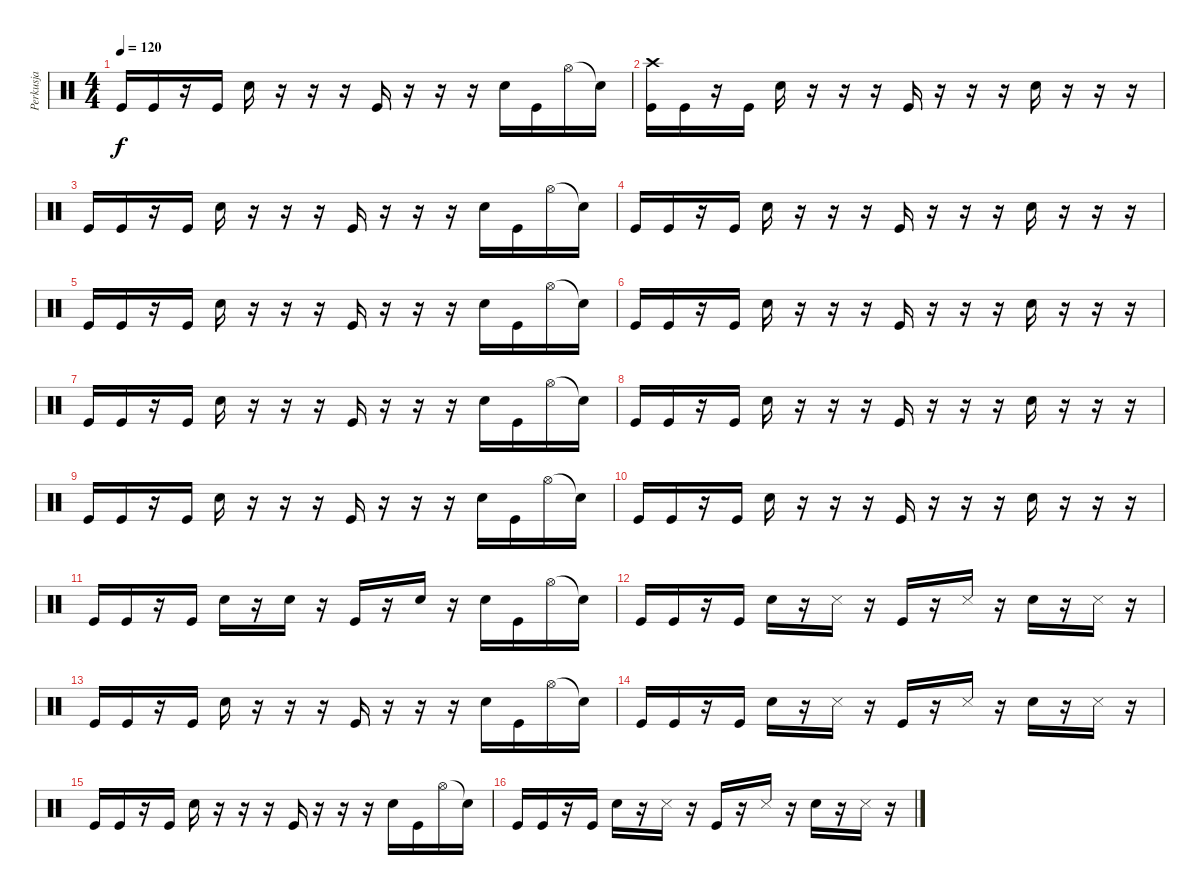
\track ("Perkusja" "Perkusja") {instrument percussion}
\staff {score}
\articulation defaults
\ts (4 4)
\tempo 120
\clef neutral
\ks c "Kick (hit)".16{dy f} "Kick (hit)".16
r.16 "Kick (hit)".16 "Snare (hit) 2".16 r.16 r.16 r.16 "Kick (hit)".16 r.16 r.16 r.16 "Snare (hit) 2".16 "Kick (hit)".16 "Hi-Hat (open)".16 "Snare (hit)"{t}.16 |
("Kick (hit)" "Crash high (hit)").16 "Kick (hit)".16 r.16 "Kick (hit)".16 "Snare (hit) 2".16 r.16 r.16 r.16 "Kick (hit)".16 r.16 r.16 r.16 "Snare (hit) 2".16 r.16 r.16 r.16 |
"Kick (hit)".16 "Kick (hit)".16 r.16 "Kick (hit)".16 "Snare (hit) 2".16 r.16 r.16 r.16 "Kick (hit)".16 r.16 r.16 r.16 "Snare (hit) 2".16 "Kick (hit)".16 "Hi-Hat (open)".16 "Snare (hit)"{t}.16 |
"Kick (hit)".16 "Kick (hit)".16 r.16 "Kick (hit)".16 "Snare (hit) 2".16 r.16 r.16 r.16 "Kick (hit)".16 r.16 r.16 r.16 "Snare (hit) 2".16 r.16 r.16 r.16 |
"Kick (hit)".16 "Kick (hit)".16 r.16 "Kick (hit)".16 "Snare (hit) 2".16 r.16 r.16 r.16 "Kick (hit)".16 r.16 r.16 r.16 "Snare (hit) 2".16 "Kick (hit)".16 "Hi-Hat (open)".16 "Snare (hit)"{t}.16 |
"Kick (hit)".16 "Kick (hit)".16 r.16 "Kick (hit)".16 "Snare (hit) 2".16 r.16 r.16 r.16 "Kick (hit)".16 r.16 r.16 r.16 "Snare (hit) 2".16 r.16 r.16 r.16 |
"Kick (hit)".16 "Kick (hit)".16 r.16 "Kick (hit)".16 "Snare (hit) 2".16 r.16 r.16 r.16 "Kick (hit)".16 r.16 r.16 r.16 "Snare (hit) 2".16 "Kick (hit)".16 "Hi-Hat (open)".16 "Snare (hit)"{t}.16 |
"Kick (hit)".16 "Kick (hit)".16 r.16 "Kick (hit)".16 "Snare (hit) 2".16 r.16 r.16 r.16 "Kick (hit)".16 r.16 r.16 r.16 "Snare (hit) 2".16 r.16 r.16 r.16 |
"Kick (hit)".16 "Kick (hit)".16 r.16 "Kick (hit)".16 "Snare (hit) 2".16 r.16 r.16 r.16 "Kick (hit)".16 r.16 r.16 r.16 "Snare (hit) 2".16 "Kick (hit)".16 "Hi-Hat (open)".16 "Snare (hit)"{t}.16 |
"Kick (hit)".16 "Kick (hit)".16 r.16 "Kick (hit)".16 "Snare (hit) 2".16 r.16 r.16 r.16 "Kick (hit)".16 r.16 r.16 r.16 "Snare (hit) 2".16 r.16 r.16 r.16 |
"Kick (hit)".16 "Kick (hit)".16 r.16 "Kick (hit)".16 "Snare (hit) 2".16 r.16 "Electric Snare (hit)".16 r.16 "Kick (hit)".16 r.16 "Electric Snare (hit)".16 r.16 "Snare (hit) 2".16 "Kick (hit)".16 "Hi-Hat (open)".16 "Snare (hit)"{t}.16 |
"Kick (hit)".16 "Kick (hit)".16 r.16 "Kick (hit)".16 "Snare (hit) 2".16 r.16 "Snare (side stick) 3".16 r.16 "Kick (hit)".16 r.16 "Snare (side stick) 3".16 r.16 "Snare (hit) 2".16 r.16 "Snare (side stick) 3".16 r.16 |
"Kick (hit)".16 "Kick (hit)".16 r.16 "Kick (hit)".16 "Snare (hit) 2".16 r.16 r.16 r.16 "Kick (hit)".16 r.16 r.16 r.16 "Snare (hit) 2".16 "Kick (hit)".16 "Hi-Hat (open)".16 "Snare (hit)"{t}.16 |
"Kick (hit)".16 "Kick (hit)".16 r.16 "Kick (hit)".16 "Snare (hit) 2".16 r.16 "Snare (side stick) 3".16 r.16 "Kick (hit)".16 r.16 "Snare (side stick) 3".16 r.16 "Snare (hit) 2".16 r.16 "Snare (side stick) 3".16 r.16 |
"Kick (hit)".16 "Kick (hit)".16 r.16 "Kick (hit)".16 "Snare (hit) 2".16 r.16 r.16 r.16 "Kick (hit)".16 r.16 r.16 r.16 "Snare (hit) 2".16 "Kick (hit)".16 "Hi-Hat (open)".16 "Snare (hit)"{t}.16 |
"Kick (hit)".16 "Kick (hit)".16 r.16 "Kick (hit)".16 "Snare (hit) 2".16 r.16 "Snare (side stick) 3".16 r.16 "Kick (hit)".16 r.16 "Snare (side stick) 3".16 r.16 "Snare (hit) 2".16 r.16 "Snare (side stick) 3".16 r.16
